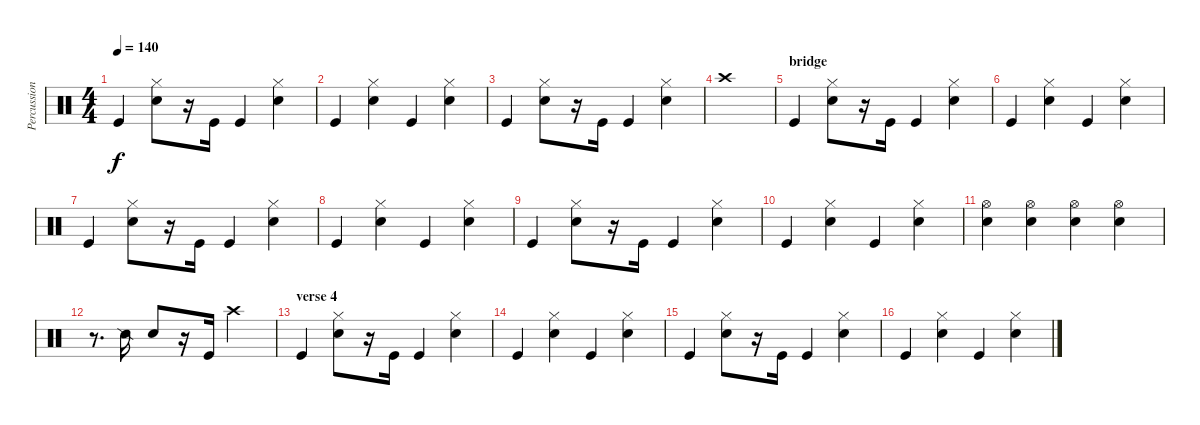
\track ("Percussions" "Percussion") {instrument percussion}
\staff {score}
\articulation defaults
\ts (4 4)
\tempo 140
\clef neutral
\ks c "Kick (hit)".4{dy f}
("Hi-Hat (closed)" "Electric Snare (hit)").8 r.16 "Kick (hit)".16 "Kick (hit)".4 ("Hi-Hat (closed)" "Electric Snare (hit)").4 |
"Kick (hit)".4 ("Hi-Hat (closed)" "Electric Snare (hit)").4 "Kick (hit)".4 ("Hi-Hat (closed)" "Electric Snare (hit)").4 |
"Kick (hit)".4 ("Hi-Hat (closed)" "Electric Snare (hit)").8 r.16 "Kick (hit)".16 "Kick (hit)".4 ("Hi-Hat (closed)" "Electric Snare (hit)").4 |
"Crash high (hit)".1 |
\section ("" "bridge")
"Kick (hit)".4 ("Hi-Hat (closed)" "Electric Snare (hit)").8 r.16 "Kick (hit)".16 "Kick (hit)".4 ("Hi-Hat (closed)" "Electric Snare (hit)").4 |
"Kick (hit)".4 ("Hi-Hat (closed)" "Electric Snare (hit)").4 "Kick (hit)".4 ("Hi-Hat (closed)" "Electric Snare (hit)").4 |
"Kick (hit)".4 ("Hi-Hat (closed)" "Electric Snare (hit)").8 r.16 "Kick (hit)".16 "Kick (hit)".4 ("Hi-Hat (closed)" "Electric Snare (hit)").4 |
"Kick (hit)".4 ("Hi-Hat (closed)" "Electric Snare (hit)").4 "Kick (hit)".4 ("Hi-Hat (closed)" "Electric Snare (hit)").4 |
"Kick (hit)".4 ("Hi-Hat (closed)" "Electric Snare (hit)").8 r.16 "Kick (hit)".16 "Kick (hit)".4 ("Hi-Hat (closed)" "Electric Snare (hit)").4 |
"Kick (hit)".4 ("Hi-Hat (closed)" "Electric Snare (hit)").4 "Kick (hit)".4 ("Hi-Hat (closed)" "Electric Snare (hit)").4 |
("Electric Snare (hit)" "Hi-Hat (open)").4 ("Electric Snare (hit)" "Hi-Hat (open)").4 ("Electric Snare (hit)" "Hi-Hat (open)").4 ("Electric Snare (hit)" "Hi-Hat (open)").4 |
r.8{d} "Snare (side stick) 2".16 "Snare (hit) 2".8 r.16 "Kick (hit)".16 "Crash high (hit)".2 |
\section ("" "verse 4")
"Kick (hit)".4 ("Hi-Hat (closed)" "Electric Snare (hit)").8 r.16 "Kick (hit)".16 "Kick (hit)".4 ("Hi-Hat (closed)" "Electric Snare (hit)").4 |
"Kick (hit)".4 ("Hi-Hat (closed)" "Electric Snare (hit)").4 "Kick (hit)".4 ("Hi-Hat (closed)" "Electric Snare (hit)").4 |
"Kick (hit)".4 ("Hi-Hat (closed)" "Electric Snare (hit)").8 r.16 "Kick (hit)".16 "Kick (hit)".4 ("Hi-Hat (closed)" "Electric Snare (hit)").4 |
"Kick (hit)".4 ("Hi-Hat (closed)" "Electric Snare (hit)").4 "Kick (hit)".4 ("Hi-Hat (closed)" "Electric Snare (hit)").4
